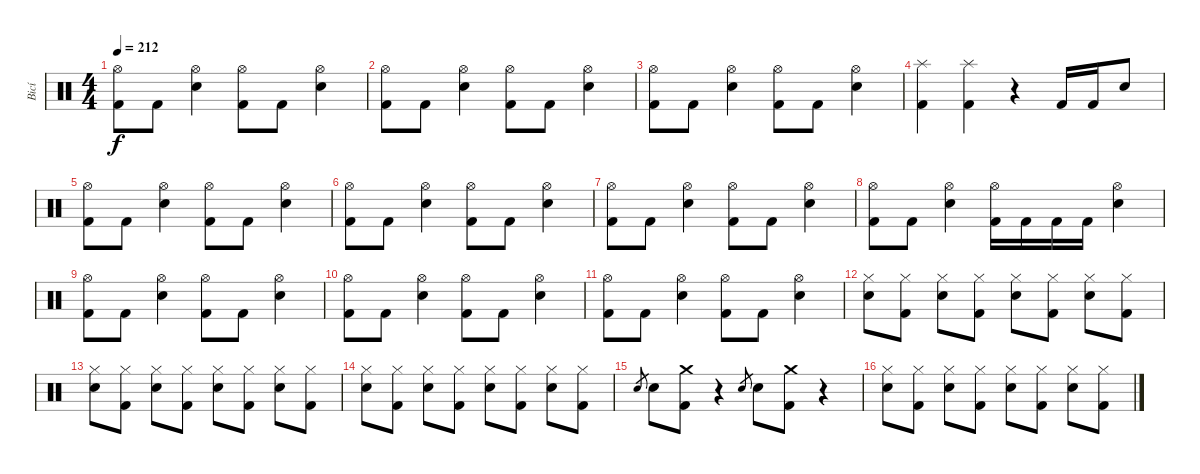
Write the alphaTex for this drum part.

\track ("Bicí" "Bicí") {instrument percussion}
\staff {score}
\articulation defaults
\ts (4 4)
\tempo 212
\clef neutral
\ks c
("Kick (hit) 2" "Hi-Hat (open)").8{dy f} "Kick (hit) 2".8 ("Snare (hit) 2" "Hi-Hat (open)").4 ("Kick (hit) 2" "Hi-Hat (open)").8 "Kick (hit) 2".8 ("Snare (hit) 2" "Hi-Hat (open)").4 |
("Kick (hit) 2" "Hi-Hat (open)").8 "Kick (hit) 2".8 ("Snare (hit) 2" "Hi-Hat (open)").4 ("Kick (hit) 2" "Hi-Hat (open)").8 "Kick (hit) 2".8 ("Snare (hit) 2" "Hi-Hat (open)").4 |
("Kick (hit) 2" "Hi-Hat (open)").8 "Kick (hit) 2".8 ("Snare (hit) 2" "Hi-Hat (open)").4 ("Kick (hit) 2" "Hi-Hat (open)").8 "Kick (hit) 2".8 ("Snare (hit) 2" "Hi-Hat (open)").4 |
("Kick (hit) 2" "Splash (hit)").4 ("Kick (hit) 2" "Splash (hit)").4 r.4 "Kick (hit) 2".16 "Kick (hit) 2".16 "Snare (hit) 2".8 |
("Kick (hit) 2" "Hi-Hat (open)").8 "Kick (hit) 2".8 ("Snare (hit) 2" "Hi-Hat (open)").4 ("Kick (hit) 2" "Hi-Hat (open)").8 "Kick (hit) 2".8 ("Snare (hit) 2" "Hi-Hat (open)").4 |
("Kick (hit) 2" "Hi-Hat (open)").8 "Kick (hit) 2".8 ("Snare (hit) 2" "Hi-Hat (open)").4 ("Kick (hit) 2" "Hi-Hat (open)").8 "Kick (hit) 2".8 ("Snare (hit) 2" "Hi-Hat (open)").4 |
("Kick (hit) 2" "Hi-Hat (open)").8 "Kick (hit) 2".8 ("Snare (hit) 2" "Hi-Hat (open)").4 ("Kick (hit) 2" "Hi-Hat (open)").8 "Kick (hit) 2".8 ("Snare (hit) 2" "Hi-Hat (open)").4 |
("Kick (hit) 2" "Hi-Hat (open)").8 "Kick (hit) 2".8 ("Snare (hit) 2" "Hi-Hat (open)").4 ("Kick (hit) 2" "Hi-Hat (open)").16 "Kick (hit) 2".16 "Kick (hit) 2".16 "Kick (hit) 2".16 ("Snare (hit) 2" "Hi-Hat (open)").4 |
("Kick (hit) 2" "Hi-Hat (open)").8 "Kick (hit) 2".8 ("Snare (hit) 2" "Hi-Hat (open)").4 ("Kick (hit) 2" "Hi-Hat (open)").8 "Kick (hit) 2".8 ("Snare (hit) 2" "Hi-Hat (open)").4 |
("Kick (hit) 2" "Hi-Hat (open)").8 "Kick (hit) 2".8 ("Snare (hit) 2" "Hi-Hat (open)").4 ("Kick (hit) 2" "Hi-Hat (open)").8 "Kick (hit) 2".8 ("Snare (hit) 2" "Hi-Hat (open)").4 |
("Kick (hit) 2" "Hi-Hat (open)").8 "Kick (hit) 2".8 ("Snare (hit) 2" "Hi-Hat (open)").4 ("Kick (hit) 2" "Hi-Hat (open)").8 "Kick (hit) 2".8 ("Snare (hit) 2" "Hi-Hat (open)").4 |
("Hi-Hat (closed)" "Snare (hit) 2").8 ("Hi-Hat (closed)" "Kick (hit) 2").8 ("Hi-Hat (closed)" "Snare (hit) 2").8 ("Hi-Hat (closed)" "Kick (hit) 2").8 ("Hi-Hat (closed)" "Snare (hit) 2").8 ("Hi-Hat (closed)" "Kick (hit) 2").8 ("Hi-Hat (closed)" "Snare (hit) 2").8 ("Hi-Hat (closed)" "Kick (hit) 2").8 |
("Hi-Hat (closed)" "Snare (hit) 2").8 ("Hi-Hat (closed)" "Kick (hit) 2").8 ("Hi-Hat (closed)" "Snare (hit) 2").8 ("Hi-Hat (closed)" "Kick (hit) 2").8 ("Hi-Hat (closed)" "Snare (hit) 2").8 ("Hi-Hat (closed)" "Kick (hit) 2").8 ("Hi-Hat (closed)" "Snare (hit) 2").8 ("Hi-Hat (closed)" "Kick (hit) 2").8 |
("Hi-Hat (closed)" "Snare (hit) 2").8 ("Hi-Hat (closed)" "Kick (hit) 2").8 ("Hi-Hat (closed)" "Snare (hit) 2").8 ("Hi-Hat (closed)" "Kick (hit) 2").8 ("Hi-Hat (closed)" "Snare (hit) 2").8 ("Hi-Hat (closed)" "Kick (hit) 2").8 ("Hi-Hat (closed)" "Snare (hit) 2").8 ("Hi-Hat (closed)" "Kick (hit) 2").8 |
"Snare (hit) 2".8{gr} "Snare (hit) 2".8 ("Crash medium (hit)" "Kick (hit) 2").8 r.4 "Snare (hit) 2".8{gr} "Snare (hit) 2".8 ("Crash medium (hit)" "Kick (hit) 2").8 r.4 |
("Hi-Hat (closed)" "Snare (hit) 2").8 ("Hi-Hat (closed)" "Kick (hit) 2").8 ("Hi-Hat (closed)" "Snare (hit) 2").8 ("Hi-Hat (closed)" "Kick (hit) 2").8 ("Hi-Hat (closed)" "Snare (hit) 2").8 ("Hi-Hat (closed)" "Kick (hit) 2").8 ("Hi-Hat (closed)" "Snare (hit) 2").8 ("Hi-Hat (closed)" "Kick (hit) 2").8
